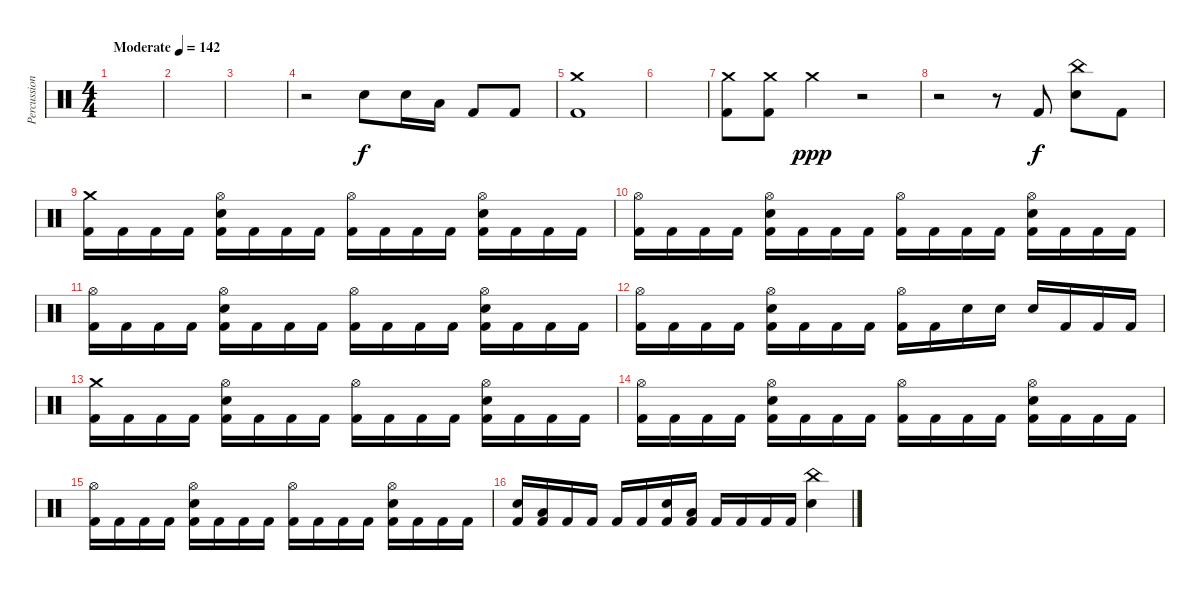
\track ("Percussion" "Percussion") {instrument percussion}
\staff {score}
\articulation defaults
\ts (4 4)
\tempo (142 "Moderate")
\clef neutral
\ks c
|
|
|
r.2 "Electric Snare (hit)".8 "Electric Snare (hit)".16 "Low Floor Tom (hit)".16 "Kick (hit) 2".8 "Kick (hit) 2".8 |
("Crash medium (hit)" "Kick (hit) 2").1 |
|
("Crash medium (hit)" "Kick (hit) 2").8 ("Crash medium (hit)" "Kick (hit) 2").8 "Crash medium (hit)".4{dy ppp} r.2 |
r.2 r.8 "Kick (hit) 2".8{dy f} ("China (hit)" "Electric Snare (hit)").8 "Kick (hit) 2".8 |
("Crash medium (hit)" "Kick (hit) 2").16 "Kick (hit) 2".16 "Kick (hit) 2".16 "Kick (hit) 2".16 ("Hi-Hat (open)" "Electric Snare (hit)" "Kick (hit) 2").16 "Kick (hit) 2".16 "Kick (hit) 2".16 "Kick (hit) 2".16 ("Hi-Hat (open)" "Kick (hit) 2").16 "Kick (hit) 2".16 "Kick (hit) 2".16 "Kick (hit) 2".16 ("Hi-Hat (open)" "Electric Snare (hit)" "Kick (hit) 2").16 "Kick (hit) 2".16 "Kick (hit) 2".16 "Kick (hit) 2".16 |
("Hi-Hat (open)" "Kick (hit) 2").16 "Kick (hit) 2".16 "Kick (hit) 2".16 "Kick (hit) 2".16 ("Hi-Hat (open)" "Electric Snare (hit)" "Kick (hit) 2").16 "Kick (hit) 2".16 "Kick (hit) 2".16 "Kick (hit) 2".16 ("Hi-Hat (open)" "Kick (hit) 2").16 "Kick (hit) 2".16 "Kick (hit) 2".16 "Kick (hit) 2".16 ("Hi-Hat (open)" "Electric Snare (hit)" "Kick (hit) 2").16 "Kick (hit) 2".16 "Kick (hit) 2".16 "Kick (hit) 2".16 |
("Hi-Hat (open)" "Kick (hit) 2").16 "Kick (hit) 2".16 "Kick (hit) 2".16 "Kick (hit) 2".16 ("Hi-Hat (open)" "Electric Snare (hit)" "Kick (hit) 2").16 "Kick (hit) 2".16 "Kick (hit) 2".16 "Kick (hit) 2".16 ("Hi-Hat (open)" "Kick (hit) 2").16 "Kick (hit) 2".16 "Kick (hit) 2".16 "Kick (hit) 2".16 ("Hi-Hat (open)" "Electric Snare (hit)" "Kick (hit) 2").16 "Kick (hit) 2".16 "Kick (hit) 2".16 "Kick (hit) 2".16 |
("Hi-Hat (open)" "Kick (hit) 2").16 "Kick (hit) 2".16 "Kick (hit) 2".16 "Kick (hit) 2".16 ("Hi-Hat (open)" "Electric Snare (hit)" "Kick (hit) 2").16 "Kick (hit) 2".16 "Kick (hit) 2".16 "Kick (hit) 2".16 ("Hi-Hat (open)" "Kick (hit) 2").16 "Kick (hit) 2".16 "Electric Snare (hit)".16 "Electric Snare (hit)".16 "Electric Snare (hit)".16 "Kick (hit) 2".16 "Kick (hit) 2".16 "Kick (hit) 2".16 |
("Crash medium (hit)" "Kick (hit) 2").16 "Kick (hit) 2".16 "Kick (hit) 2".16 "Kick (hit) 2".16 ("Hi-Hat (open)" "Electric Snare (hit)" "Kick (hit) 2").16 "Kick (hit) 2".16 "Kick (hit) 2".16 "Kick (hit) 2".16 ("Hi-Hat (open)" "Kick (hit) 2").16 "Kick (hit) 2".16 "Kick (hit) 2".16 "Kick (hit) 2".16 ("Hi-Hat (open)" "Electric Snare (hit)" "Kick (hit) 2").16 "Kick (hit) 2".16 "Kick (hit) 2".16 "Kick (hit) 2".16 |
("Hi-Hat (open)" "Kick (hit) 2").16 "Kick (hit) 2".16 "Kick (hit) 2".16 "Kick (hit) 2".16 ("Hi-Hat (open)" "Electric Snare (hit)" "Kick (hit) 2").16 "Kick (hit) 2".16 "Kick (hit) 2".16 "Kick (hit) 2".16 ("Hi-Hat (open)" "Kick (hit) 2").16 "Kick (hit) 2".16 "Kick (hit) 2".16 "Kick (hit) 2".16 ("Hi-Hat (open)" "Electric Snare (hit)" "Kick (hit) 2").16 "Kick (hit) 2".16 "Kick (hit) 2".16 "Kick (hit) 2".16 |
("Hi-Hat (open)" "Kick (hit) 2").16 "Kick (hit) 2".16 "Kick (hit) 2".16 "Kick (hit) 2".16 ("Hi-Hat (open)" "Electric Snare (hit)" "Kick (hit) 2").16 "Kick (hit) 2".16 "Kick (hit) 2".16 "Kick (hit) 2".16 ("Hi-Hat (open)" "Kick (hit) 2").16 "Kick (hit) 2".16 "Kick (hit) 2".16 "Kick (hit) 2".16 ("Hi-Hat (open)" "Electric Snare (hit)" "Kick (hit) 2").16 "Kick (hit) 2".16 "Kick (hit) 2".16 "Kick (hit) 2".16 |
("Electric Snare (hit)" "Kick (hit) 2").16 ("Low Floor Tom (hit)" "Kick (hit) 2").16 "Kick (hit) 2".16 "Kick (hit) 2".16 "Kick (hit) 2".16 "Kick (hit) 2".16 ("Electric Snare (hit)" "Kick (hit) 2").16 ("Low Floor Tom (hit)" "Kick (hit) 2").16 "Kick (hit) 2".16 "Kick (hit) 2".16 "Kick (hit) 2".16 "Kick (hit) 2".16 ("China (hit)" "Electric Snare (hit)").4
